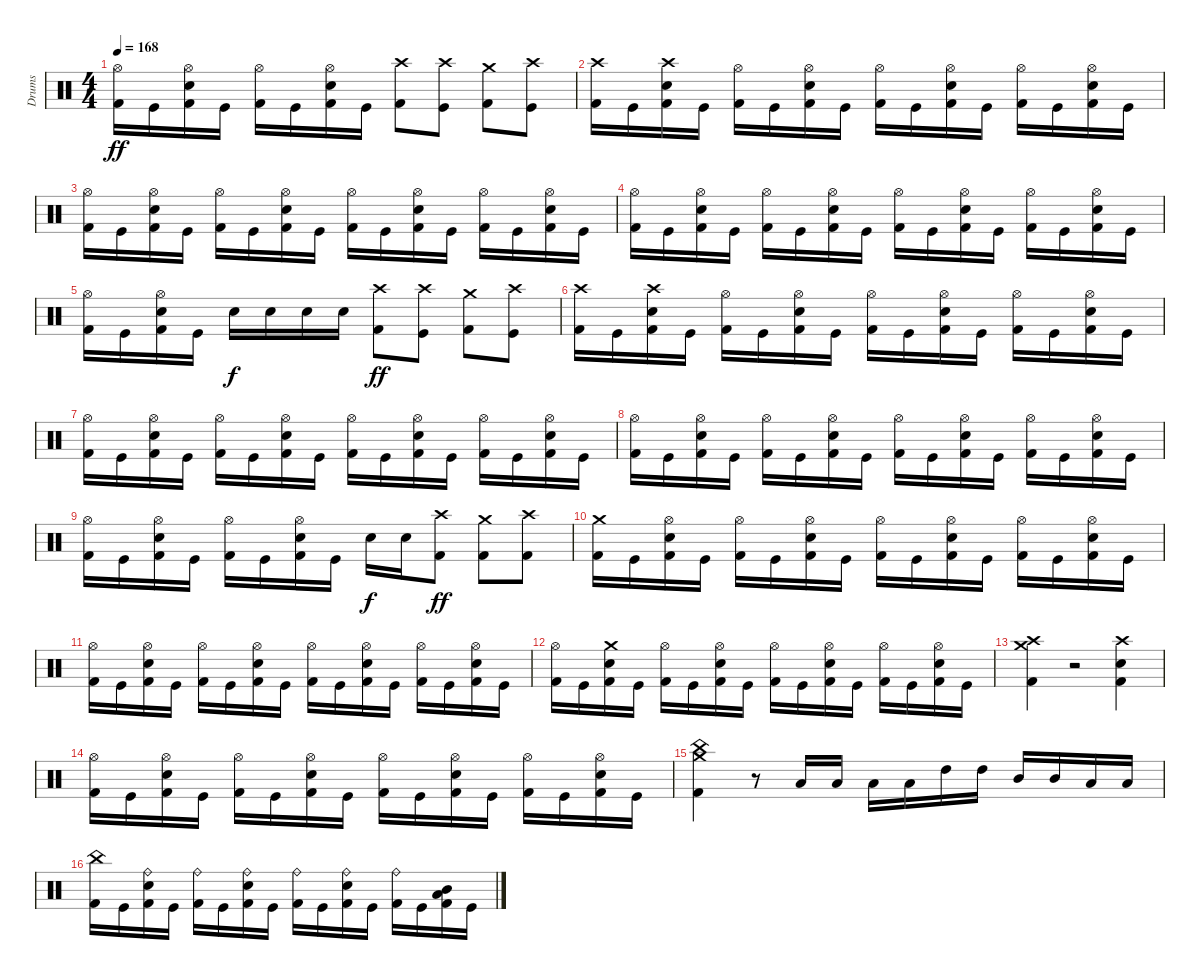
\track ("Drums" "Drums") {instrument percussion}
\staff {score}
\articulation defaults
\ts (4 4)
\tempo 168
\clef neutral
\ks c
("Hi-Hat (open)" "Kick (hit) 2").16{dy ff} "Kick (hit)".16 ("Hi-Hat (open)" "Electric Snare (hit)" "Kick (hit) 2").16 "Kick (hit)".16 ("Hi-Hat (open)" "Kick (hit) 2").16 "Kick (hit)".16 ("Hi-Hat (open)" "Electric Snare (hit)" "Kick (hit) 2").16 "Kick (hit)".16 ("Crash high (hit)" "Kick (hit) 2").8 ("Crash high (hit)" "Kick (hit)").8 ("Crash medium (hit)" "Kick (hit) 2").8 ("Crash high (hit)" "Kick (hit)").8 |
("Crash high (hit)" "Kick (hit) 2").16 "Kick (hit)".16 ("Crash high (hit)" "Electric Snare (hit)" "Kick (hit) 2").16 "Kick (hit)".16 ("Hi-Hat (open)" "Kick (hit) 2").16 "Kick (hit)".16 ("Hi-Hat (open)" "Electric Snare (hit)" "Kick (hit) 2").16 "Kick (hit)".16 ("Hi-Hat (open)" "Kick (hit) 2").16 "Kick (hit)".16 ("Hi-Hat (open)" "Electric Snare (hit)" "Kick (hit) 2").16 "Kick (hit)".16 ("Hi-Hat (open)" "Kick (hit) 2").16 "Kick (hit)".16 ("Hi-Hat (open)" "Electric Snare (hit)" "Kick (hit) 2").16 "Kick (hit)".16 |
("Hi-Hat (open)" "Kick (hit) 2").16 "Kick (hit)".16 ("Hi-Hat (open)" "Electric Snare (hit)" "Kick (hit) 2").16 "Kick (hit)".16 ("Hi-Hat (open)" "Kick (hit) 2").16 "Kick (hit)".16 ("Hi-Hat (open)" "Electric Snare (hit)" "Kick (hit) 2").16 "Kick (hit)".16 ("Hi-Hat (open)" "Kick (hit) 2").16 "Kick (hit)".16 ("Hi-Hat (open)" "Electric Snare (hit)" "Kick (hit) 2").16 "Kick (hit)".16 ("Hi-Hat (open)" "Kick (hit) 2").16 "Kick (hit)".16 ("Hi-Hat (open)" "Electric Snare (hit)" "Kick (hit) 2").16 "Kick (hit)".16 |
("Hi-Hat (open)" "Kick (hit) 2").16 "Kick (hit)".16 ("Hi-Hat (open)" "Electric Snare (hit)" "Kick (hit) 2").16 "Kick (hit)".16 ("Hi-Hat (open)" "Kick (hit) 2").16 "Kick (hit)".16 ("Hi-Hat (open)" "Electric Snare (hit)" "Kick (hit) 2").16 "Kick (hit)".16 ("Hi-Hat (open)" "Kick (hit) 2").16 "Kick (hit)".16 ("Hi-Hat (open)" "Electric Snare (hit)" "Kick (hit) 2").16 "Kick (hit)".16 ("Hi-Hat (open)" "Kick (hit) 2").16 "Kick (hit)".16 ("Hi-Hat (open)" "Electric Snare (hit)" "Kick (hit) 2").16 "Kick (hit)".16 |
("Hi-Hat (open)" "Kick (hit) 2").16 "Kick (hit)".16 ("Hi-Hat (open)" "Electric Snare (hit)" "Kick (hit) 2").16 "Kick (hit)".16 "Electric Snare (hit)".16{dy f} "Electric Snare (hit)".16 "Electric Snare (hit)".16 "Electric Snare (hit)".16 ("Crash high (hit)" "Kick (hit) 2").8{dy ff} ("Crash high (hit)" "Kick (hit)").8 ("Crash medium (hit)" "Kick (hit) 2").8 ("Crash high (hit)" "Kick (hit)").8 |
("Crash high (hit)" "Kick (hit) 2").16 "Kick (hit)".16 ("Crash high (hit)" "Electric Snare (hit)" "Kick (hit) 2").16 "Kick (hit)".16 ("Hi-Hat (open)" "Kick (hit) 2").16 "Kick (hit)".16 ("Hi-Hat (open)" "Electric Snare (hit)" "Kick (hit) 2").16 "Kick (hit)".16 ("Hi-Hat (open)" "Kick (hit) 2").16 "Kick (hit)".16 ("Hi-Hat (open)" "Electric Snare (hit)" "Kick (hit) 2").16 "Kick (hit)".16 ("Hi-Hat (open)" "Kick (hit) 2").16 "Kick (hit)".16 ("Hi-Hat (open)" "Electric Snare (hit)" "Kick (hit) 2").16 "Kick (hit)".16 |
("Hi-Hat (open)" "Kick (hit) 2").16 "Kick (hit)".16 ("Hi-Hat (open)" "Electric Snare (hit)" "Kick (hit) 2").16 "Kick (hit)".16 ("Hi-Hat (open)" "Kick (hit) 2").16 "Kick (hit)".16 ("Hi-Hat (open)" "Electric Snare (hit)" "Kick (hit) 2").16 "Kick (hit)".16 ("Hi-Hat (open)" "Kick (hit) 2").16 "Kick (hit)".16 ("Hi-Hat (open)" "Electric Snare (hit)" "Kick (hit) 2").16 "Kick (hit)".16 ("Hi-Hat (open)" "Kick (hit) 2").16 "Kick (hit)".16 ("Hi-Hat (open)" "Electric Snare (hit)" "Kick (hit) 2").16 "Kick (hit)".16 |
("Hi-Hat (open)" "Kick (hit) 2").16 "Kick (hit)".16 ("Hi-Hat (open)" "Electric Snare (hit)" "Kick (hit) 2").16 "Kick (hit)".16 ("Hi-Hat (open)" "Kick (hit) 2").16 "Kick (hit)".16 ("Hi-Hat (open)" "Electric Snare (hit)" "Kick (hit) 2").16 "Kick (hit)".16 ("Hi-Hat (open)" "Kick (hit) 2").16 "Kick (hit)".16 ("Hi-Hat (open)" "Electric Snare (hit)" "Kick (hit) 2").16 "Kick (hit)".16 ("Hi-Hat (open)" "Kick (hit) 2").16 "Kick (hit)".16 ("Hi-Hat (open)" "Electric Snare (hit)" "Kick (hit) 2").16 "Kick (hit)".16 |
("Hi-Hat (open)" "Kick (hit) 2").16 "Kick (hit)".16 ("Hi-Hat (open)" "Electric Snare (hit)" "Kick (hit) 2").16 "Kick (hit)".16 ("Hi-Hat (open)" "Kick (hit) 2").16 "Kick (hit)".16 ("Hi-Hat (open)" "Electric Snare (hit)" "Kick (hit) 2").16 "Kick (hit)".16 "Electric Snare (hit)".16{dy f} "Electric Snare (hit)".16 ("Crash high (hit)" "Kick (hit) 2").8{dy ff} ("Crash medium (hit)" "Kick (hit) 2").8 ("Crash high (hit)" "Kick (hit) 2").8 |
("Crash medium (hit)" "Kick (hit) 2").16 "Kick (hit)".16 ("Hi-Hat (open)" "Electric Snare (hit)" "Kick (hit) 2").16 "Kick (hit)".16 ("Hi-Hat (open)" "Kick (hit) 2").16 "Kick (hit)".16 ("Hi-Hat (open)" "Electric Snare (hit)" "Kick (hit) 2").16 "Kick (hit)".16 ("Hi-Hat (open)" "Kick (hit) 2").16 "Kick (hit)".16 ("Hi-Hat (open)" "Electric Snare (hit)" "Kick (hit) 2").16 "Kick (hit)".16 ("Hi-Hat (open)" "Kick (hit) 2").16 "Kick (hit)".16 ("Hi-Hat (open)" "Electric Snare (hit)" "Kick (hit) 2").16 "Kick (hit)".16 |
("Hi-Hat (open)" "Kick (hit) 2").16 "Kick (hit)".16 ("Hi-Hat (open)" "Electric Snare (hit)" "Kick (hit) 2").16 "Kick (hit)".16 ("Hi-Hat (open)" "Kick (hit) 2").16 "Kick (hit)".16 ("Hi-Hat (open)" "Electric Snare (hit)" "Kick (hit) 2").16 "Kick (hit)".16 ("Hi-Hat (open)" "Kick (hit) 2").16 "Kick (hit)".16 ("Hi-Hat (open)" "Electric Snare (hit)" "Kick (hit) 2").16 "Kick (hit)".16 ("Hi-Hat (open)" "Kick (hit) 2").16 "Kick (hit)".16 ("Hi-Hat (open)" "Electric Snare (hit)" "Kick (hit) 2").16 "Kick (hit)".16 |
("Hi-Hat (open)" "Kick (hit) 2").16 "Kick (hit)".16 ("Crash medium (hit)" "Electric Snare (hit)" "Kick (hit) 2").16 "Kick (hit)".16 ("Hi-Hat (open)" "Kick (hit) 2").16 "Kick (hit)".16 ("Hi-Hat (open)" "Electric Snare (hit)" "Kick (hit) 2").16 "Kick (hit)".16 ("Hi-Hat (open)" "Kick (hit) 2").16 "Kick (hit)".16 ("Hi-Hat (open)" "Electric Snare (hit)" "Kick (hit) 2").16 "Kick (hit)".16 ("Hi-Hat (open)" "Kick (hit) 2").16 "Kick (hit)".16 ("Hi-Hat (open)" "Electric Snare (hit)" "Kick (hit) 2").16 "Kick (hit)".16 |
("Crash high (hit)" "Crash medium (hit)" "Kick (hit) 2").4 r.2 ("Crash high (hit)" "Electric Snare (hit)" "Kick (hit) 2").4 |
("Hi-Hat (open)" "Kick (hit) 2").16 "Kick (hit)".16 ("Hi-Hat (open)" "Electric Snare (hit)" "Kick (hit) 2").16 "Kick (hit)".16 ("Hi-Hat (open)" "Kick (hit) 2").16 "Kick (hit)".16 ("Hi-Hat (open)" "Electric Snare (hit)" "Kick (hit) 2").16 "Kick (hit)".16 ("Hi-Hat (open)" "Kick (hit) 2").16 "Kick (hit)".16 ("Hi-Hat (open)" "Electric Snare (hit)" "Kick (hit) 2").16 "Kick (hit)".16 ("Hi-Hat (open)" "Kick (hit) 2").16 "Kick (hit)".16 ("Hi-Hat (open)" "Electric Snare (hit)" "Kick (hit) 2").16 "Kick (hit)".16 |
("Crash medium (hit)" "China (hit)" "Kick (hit) 2").4 r.8 "Low Tom (hit)".16 "Low Tom (hit)".16 "Low Tom (hit)".16 "Low Tom (hit)".16 "High Tom (hit)".16 "High Tom (hit)".16 "Mid Tom (hit)".16 "Mid Tom (hit)".16 "Low Tom (hit)".16 "Low Tom (hit)".16 |
("China (hit)" "Kick (hit) 2").16 "Kick (hit)".16 ("Ride (bell)" "Electric Snare (hit)" "Kick (hit) 2").16 "Kick (hit)".16 ("Ride (bell)" "Kick (hit) 2").16 "Kick (hit)".16 ("Ride (bell)" "Electric Snare (hit)" "Kick (hit) 2").16 "Kick (hit)".16 ("Ride (bell)" "Kick (hit) 2").16 "Kick (hit)".16 ("Ride (bell)" "Electric Snare (hit)" "Kick (hit) 2").16 "Kick (hit)".16 ("Ride (bell)" "Kick (hit) 2").16 "Kick (hit)".16 ("Low Tom (hit)" "Mid Tom (hit)" "Kick (hit) 2").16 "Kick (hit)".16
